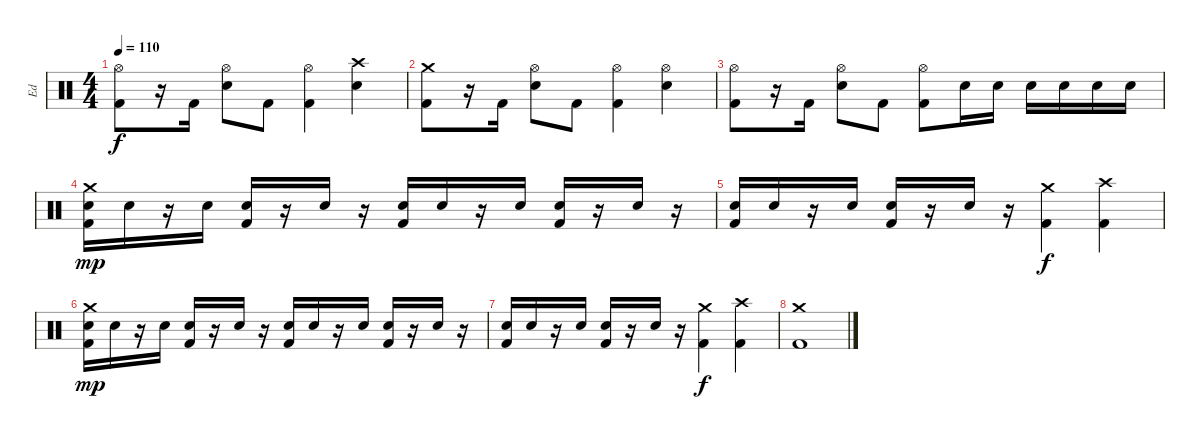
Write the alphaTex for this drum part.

\track ("Ed" "Ed") {instrument percussion}
\staff {score}
\articulation defaults
\ts (4 4)
\tempo 110
\clef neutral
\ks c
("Hi-Hat (open)" "Kick (hit) 2").8{dy f} r.16 "Kick (hit) 2".16 ("Hi-Hat (open)" "Electric Snare (hit)").8 "Kick (hit) 2".8 ("Hi-Hat (open)" "Kick (hit) 2").4 ("Crash high (hit)" "Electric Snare (hit)").4 |
("Crash medium (hit)" "Kick (hit) 2").8 r.16 "Kick (hit) 2".16 ("Hi-Hat (open)" "Electric Snare (hit)").8 "Kick (hit) 2".8 ("Hi-Hat (open)" "Kick (hit) 2").4 ("Hi-Hat (open)" "Electric Snare (hit)").4 |
("Hi-Hat (open)" "Kick (hit) 2").8 r.16 "Kick (hit) 2".16 ("Hi-Hat (open)" "Electric Snare (hit)").8 "Kick (hit) 2".8 ("Hi-Hat (open)" "Kick (hit) 2").8 "Electric Snare (hit)".16 "Electric Snare (hit)".16 "Electric Snare (hit)".16 "Electric Snare (hit)".16 "Electric Snare (hit)".16 "Electric Snare (hit)".16 |
("Crash medium (hit)" "Electric Snare (hit)" "Kick (hit) 2").16{dy mp} "Electric Snare (hit)".16 r.16 "Electric Snare (hit)".16 ("Electric Snare (hit)" "Kick (hit) 2").16 r.16 "Electric Snare (hit)".16 r.16 ("Electric Snare (hit)" "Kick (hit) 2").16 "Electric Snare (hit)".16 r.16 "Electric Snare (hit)".16 ("Electric Snare (hit)" "Kick (hit) 2").16 r.16 "Electric Snare (hit)".16 r.16 |
("Electric Snare (hit)" "Kick (hit) 2").16 "Electric Snare (hit)".16 r.16 "Electric Snare (hit)".16 ("Electric Snare (hit)" "Kick (hit) 2").16 r.16 "Electric Snare (hit)".16 r.16 ("Crash medium (hit)" "Kick (hit) 2").4{dy f} ("Crash high (hit)" "Kick (hit) 2").4 |
("Crash medium (hit)" "Electric Snare (hit)" "Kick (hit) 2").16{dy mp} "Electric Snare (hit)".16 r.16 "Electric Snare (hit)".16 ("Electric Snare (hit)" "Kick (hit) 2").16 r.16 "Electric Snare (hit)".16 r.16 ("Electric Snare (hit)" "Kick (hit) 2").16 "Electric Snare (hit)".16 r.16 "Electric Snare (hit)".16 ("Electric Snare (hit)" "Kick (hit) 2").16 r.16 "Electric Snare (hit)".16 r.16 |
("Electric Snare (hit)" "Kick (hit) 2").16 "Electric Snare (hit)".16 r.16 "Electric Snare (hit)".16 ("Electric Snare (hit)" "Kick (hit) 2").16 r.16 "Electric Snare (hit)".16 r.16 ("Crash medium (hit)" "Kick (hit) 2").4{dy f} ("Crash high (hit)" "Kick (hit) 2").4 |
("Crash medium (hit)" "Kick (hit) 2").1
